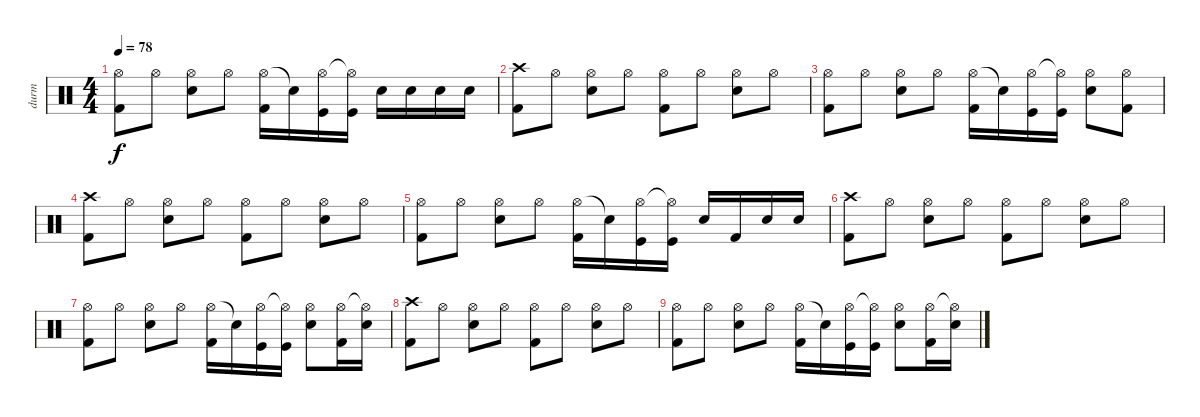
\track ("durm" "durm") {instrument percussion}
\staff {score}
\articulation defaults
\ts (4 4)
\tempo 78
\clef neutral
\ks c
("Hi-Hat (open)" "Kick (hit) 2").8{dy f} "Hi-Hat (open)".8 ("Hi-Hat (open)" "Electric Snare (hit)").8 "Hi-Hat (open)".8 ("Hi-Hat (open)" "Kick (hit) 2").16 "Snare (hit)"{t}.16 ("Hi-Hat (open)" "Kick (hit)").16 ("Hi-Hat (open)"{t} "Kick (hit)").16 "Electric Snare (hit)".16 "Electric Snare (hit)".16 "Electric Snare (hit)".16 "Electric Snare (hit)".16 |
("Crash high (hit)" "Kick (hit) 2").8 "Hi-Hat (open)".8 ("Hi-Hat (open)" "Electric Snare (hit)").8 "Hi-Hat (open)".8 ("Hi-Hat (open)" "Kick (hit) 2").8 "Hi-Hat (open)".8 ("Hi-Hat (open)" "Electric Snare (hit)").8 "Hi-Hat (open)".8 |
("Hi-Hat (open)" "Kick (hit) 2").8 "Hi-Hat (open)".8 ("Hi-Hat (open)" "Electric Snare (hit)").8 "Hi-Hat (open)".8 ("Hi-Hat (open)" "Kick (hit) 2").16 "Snare (hit)"{t}.16 ("Hi-Hat (open)" "Kick (hit)").16 ("Hi-Hat (open)"{t} "Kick (hit)").16 ("Hi-Hat (open)" "Electric Snare (hit)").8 ("Hi-Hat (open)" "Kick (hit) 2").8 |
("Crash high (hit)" "Kick (hit) 2").8 "Hi-Hat (open)".8 ("Hi-Hat (open)" "Electric Snare (hit)").8 "Hi-Hat (open)".8 ("Hi-Hat (open)" "Kick (hit) 2").8 "Hi-Hat (open)".8 ("Hi-Hat (open)" "Electric Snare (hit)").8 "Hi-Hat (open)".8 |
("Hi-Hat (open)" "Kick (hit) 2").8 "Hi-Hat (open)".8 ("Hi-Hat (open)" "Electric Snare (hit)").8 "Hi-Hat (open)".8 ("Hi-Hat (open)" "Kick (hit) 2").16 "Snare (hit)"{t}.16 ("Hi-Hat (open)" "Kick (hit)").16 ("Hi-Hat (open)"{t} "Kick (hit)").16 "Electric Snare (hit)".16 "Kick (hit) 2".16 "Electric Snare (hit)".16 "Electric Snare (hit)".16 |
("Crash high (hit)" "Kick (hit) 2").8 "Hi-Hat (open)".8 ("Hi-Hat (open)" "Electric Snare (hit)").8 "Hi-Hat (open)".8 ("Hi-Hat (open)" "Kick (hit) 2").8 "Hi-Hat (open)".8 ("Hi-Hat (open)" "Electric Snare (hit)").8 "Hi-Hat (open)".8 |
("Hi-Hat (open)" "Kick (hit) 2").8 "Hi-Hat (open)".8 ("Hi-Hat (open)" "Electric Snare (hit)").8 "Hi-Hat (open)".8 ("Hi-Hat (open)" "Kick (hit) 2").16 "Snare (hit)"{t}.16 ("Hi-Hat (open)" "Kick (hit)").16 ("Hi-Hat (open)"{t} "Kick (hit)").16 ("Hi-Hat (open)" "Electric Snare (hit)").8 ("Hi-Hat (open)" "Kick (hit) 2").16 ("Hi-Hat (open)"{t} "Electric Snare (hit)").16 |
("Crash high (hit)" "Kick (hit) 2").8 "Hi-Hat (open)".8 ("Hi-Hat (open)" "Electric Snare (hit)").8 "Hi-Hat (open)".8 ("Hi-Hat (open)" "Kick (hit) 2").8 "Hi-Hat (open)".8 ("Hi-Hat (open)" "Electric Snare (hit)").8 "Hi-Hat (open)".8 |
("Hi-Hat (open)" "Kick (hit) 2").8 "Hi-Hat (open)".8 ("Hi-Hat (open)" "Electric Snare (hit)").8 "Hi-Hat (open)".8 ("Hi-Hat (open)" "Kick (hit) 2").16 "Snare (hit)"{t}.16 ("Hi-Hat (open)" "Kick (hit)").16 ("Hi-Hat (open)"{t} "Kick (hit)").16 ("Hi-Hat (open)" "Electric Snare (hit)").8 ("Hi-Hat (open)" "Kick (hit) 2").16 ("Hi-Hat (open)"{t} "Electric Snare (hit)").16
